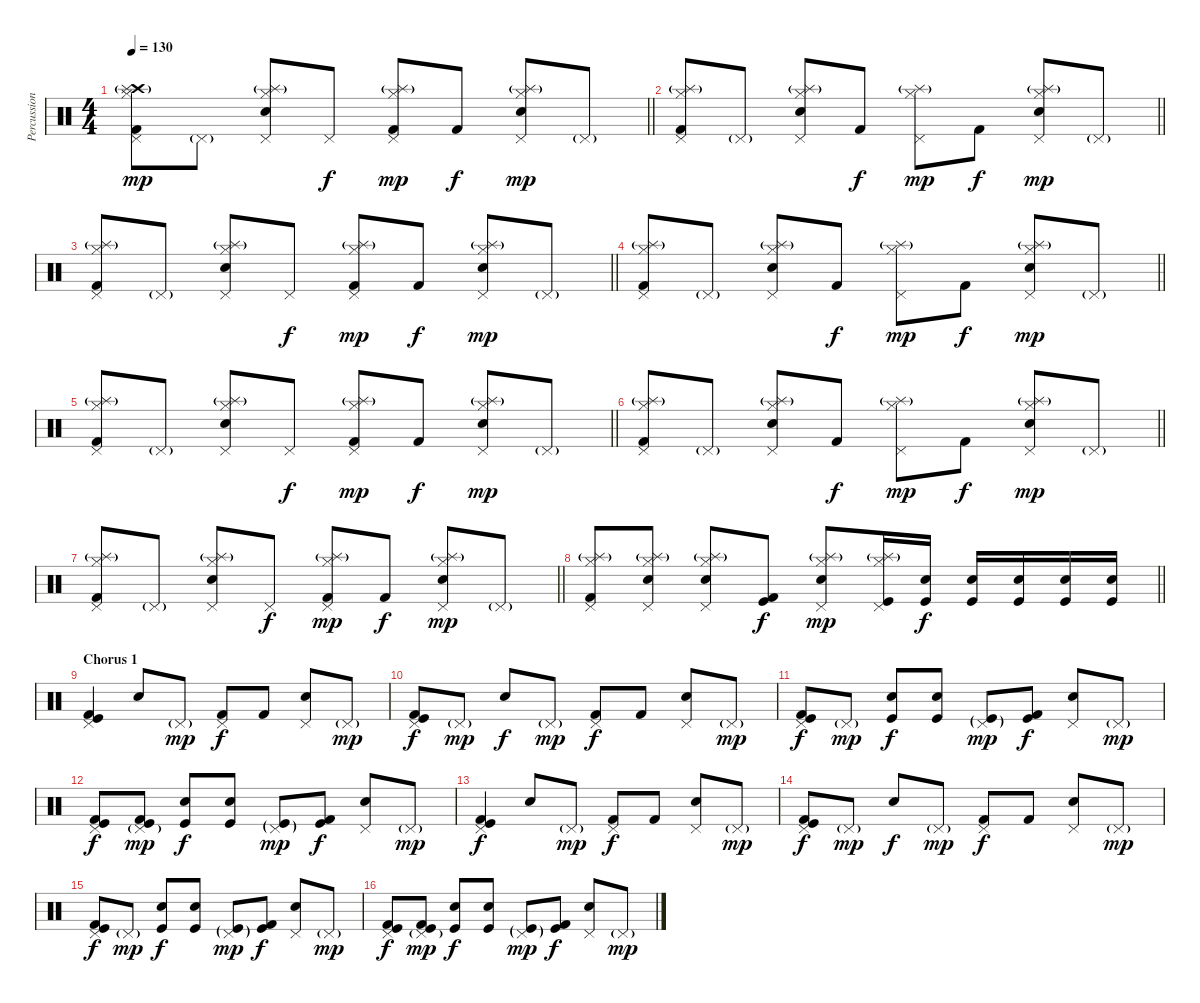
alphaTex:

\track ("Percussion(Wendell Garcia)" "Percussion") {instrument percussion}
\staff {score}
\articulation defaults
\ts (4 4)
\tempo 130
\clef neutral
\barLineRight lightlight
\ks c
("Crash high (hit)" "Pedal Hi-Hat (hit)" "Hi-Hat (closed)" "Splash (hit)"{g} "Kick (hit) 2").8{dy mp} "Pedal Hi-Hat (hit)"{g}.8 ("Electric Snare (hit)" "Pedal Hi-Hat (hit)" "Hi-Hat (closed)" "Splash (hit)"{g}).8 "Pedal Hi-Hat (hit)".8{dy f} ("Kick (hit) 2" "Pedal Hi-Hat (hit)" "Hi-Hat (closed)" "Splash (hit)"{g}).8{dy mp} "Kick (hit) 2".8{dy f} ("Electric Snare (hit)" "Pedal Hi-Hat (hit)" "Hi-Hat (closed)" "Splash (hit)"{g}).8{dy mp} "Pedal Hi-Hat (hit)"{g}.8 |
\barLineRight lightlight
("Kick (hit) 2" "Pedal Hi-Hat (hit)" "Hi-Hat (closed)" "Splash (hit)"{g}).8 "Pedal Hi-Hat (hit)"{g}.8 ("Electric Snare (hit)" "Pedal Hi-Hat (hit)" "Hi-Hat (closed)" "Splash (hit)"{g}).8 "Kick (hit) 2".8{dy f} ("Pedal Hi-Hat (hit)" "Hi-Hat (closed)" "Splash (hit)"{g}).8{dy mp} "Kick (hit) 2".8{dy f} ("Electric Snare (hit)" "Pedal Hi-Hat (hit)" "Hi-Hat (closed)" "Splash (hit)"{g}).8{dy mp} "Pedal Hi-Hat (hit)"{g}.8 |
\barLineRight lightlight
("Kick (hit) 2" "Pedal Hi-Hat (hit)" "Hi-Hat (closed)" "Splash (hit)"{g}).8 "Pedal Hi-Hat (hit)"{g}.8 ("Electric Snare (hit)" "Pedal Hi-Hat (hit)" "Hi-Hat (closed)" "Splash (hit)"{g}).8 "Pedal Hi-Hat (hit)".8{dy f} ("Kick (hit) 2" "Pedal Hi-Hat (hit)" "Hi-Hat (closed)" "Splash (hit)"{g}).8{dy mp} "Kick (hit) 2".8{dy f} ("Electric Snare (hit)" "Pedal Hi-Hat (hit)" "Hi-Hat (closed)" "Splash (hit)"{g}).8{dy mp} "Pedal Hi-Hat (hit)"{g}.8 |
\barLineRight lightlight
("Kick (hit) 2" "Pedal Hi-Hat (hit)" "Hi-Hat (closed)" "Splash (hit)"{g}).8 "Pedal Hi-Hat (hit)"{g}.8 ("Electric Snare (hit)" "Pedal Hi-Hat (hit)" "Hi-Hat (closed)" "Splash (hit)"{g}).8 "Kick (hit) 2".8{dy f} ("Pedal Hi-Hat (hit)" "Hi-Hat (closed)" "Splash (hit)"{g}).8{dy mp} "Kick (hit) 2".8{dy f} ("Electric Snare (hit)" "Pedal Hi-Hat (hit)" "Hi-Hat (closed)" "Splash (hit)"{g}).8{dy mp} "Pedal Hi-Hat (hit)"{g}.8 |
\barLineRight lightlight
("Kick (hit) 2" "Pedal Hi-Hat (hit)" "Hi-Hat (closed)" "Splash (hit)"{g}).8 "Pedal Hi-Hat (hit)"{g}.8 ("Electric Snare (hit)" "Pedal Hi-Hat (hit)" "Hi-Hat (closed)" "Splash (hit)"{g}).8 "Pedal Hi-Hat (hit)".8{dy f} ("Kick (hit) 2" "Pedal Hi-Hat (hit)" "Hi-Hat (closed)" "Splash (hit)"{g}).8{dy mp} "Kick (hit) 2".8{dy f} ("Electric Snare (hit)" "Pedal Hi-Hat (hit)" "Hi-Hat (closed)" "Splash (hit)"{g}).8{dy mp} "Pedal Hi-Hat (hit)"{g}.8 |
\barLineRight lightlight
("Kick (hit) 2" "Pedal Hi-Hat (hit)" "Hi-Hat (closed)" "Splash (hit)"{g}).8 "Pedal Hi-Hat (hit)"{g}.8 ("Electric Snare (hit)" "Pedal Hi-Hat (hit)" "Hi-Hat (closed)" "Splash (hit)"{g}).8 "Kick (hit) 2".8{dy f} ("Pedal Hi-Hat (hit)" "Hi-Hat (closed)" "Splash (hit)"{g}).8{dy mp} "Kick (hit) 2".8{dy f} ("Electric Snare (hit)" "Pedal Hi-Hat (hit)" "Hi-Hat (closed)" "Splash (hit)"{g}).8{dy mp} "Pedal Hi-Hat (hit)"{g}.8 |
\barLineRight lightlight
("Kick (hit) 2" "Pedal Hi-Hat (hit)" "Hi-Hat (closed)" "Splash (hit)"{g}).8 "Pedal Hi-Hat (hit)"{g}.8 ("Electric Snare (hit)" "Pedal Hi-Hat (hit)" "Hi-Hat (closed)" "Splash (hit)"{g}).8 "Pedal Hi-Hat (hit)".8{dy f} ("Kick (hit) 2" "Pedal Hi-Hat (hit)" "Hi-Hat (closed)" "Splash (hit)"{g}).8{dy mp} "Kick (hit) 2".8{dy f} ("Electric Snare (hit)" "Pedal Hi-Hat (hit)" "Hi-Hat (closed)" "Splash (hit)"{g}).8{dy mp} "Pedal Hi-Hat (hit)"{g}.8 |
\barLineRight lightlight
("Kick (hit) 2" "Pedal Hi-Hat (hit)" "Hi-Hat (closed)" "Splash (hit)"{g}).8 ("Electric Snare (hit)" "Pedal Hi-Hat (hit)" "Hi-Hat (closed)" "Splash (hit)"{g}).8 ("Electric Snare (hit)" "Pedal Hi-Hat (hit)" "Hi-Hat (closed)" "Splash (hit)"{g}).8 ("Kick (hit) 2" "Kick (hit)").8{dy f} ("Electric Snare (hit)" "Pedal Hi-Hat (hit)" "Hi-Hat (closed)" "Splash (hit)"{g}).8{dy mp} ("Kick (hit)" "Pedal Hi-Hat (hit)" "Hi-Hat (closed)" "Splash (hit)"{g}).16 ("Electric Snare (hit)" "Kick (hit)").16{dy f} ("Electric Snare (hit)" "Kick (hit)").16 ("Electric Snare (hit)" "Kick (hit)").16 ("Electric Snare (hit)" "Kick (hit)").16 ("Electric Snare (hit)" "Kick (hit)").16 |
\section ("" "Chorus 1")
("Pedal Hi-Hat (hit)" "Kick (hit) 2" "Kick (hit)").4 "Electric Snare (hit)".8 "Pedal Hi-Hat (hit)"{g}.8{dy mp} ("Kick (hit) 2" "Pedal Hi-Hat (hit)").8{dy f} "Kick (hit) 2".8 ("Electric Snare (hit)" "Pedal Hi-Hat (hit)").8 "Pedal Hi-Hat (hit)"{g}.8{dy mp} |
("Pedal Hi-Hat (hit)" "Kick (hit) 2" "Kick (hit)").8{dy f} "Pedal Hi-Hat (hit)"{g}.8{dy mp} "Electric Snare (hit)".8{dy f} "Pedal Hi-Hat (hit)"{g}.8{dy mp} ("Kick (hit) 2" "Pedal Hi-Hat (hit)").8{dy f} "Kick (hit) 2".8 ("Electric Snare (hit)" "Pedal Hi-Hat (hit)").8 "Pedal Hi-Hat (hit)"{g}.8{dy mp} |
("Pedal Hi-Hat (hit)" "Kick (hit) 2" "Kick (hit)").8{dy f} "Pedal Hi-Hat (hit)"{g}.8{dy mp} ("Electric Snare (hit)" "Kick (hit)").8{dy f} ("Electric Snare (hit)" "Kick (hit)").8 ("Kick (hit)"{g} "Pedal Hi-Hat (hit)"{g}).8{dy mp} ("Kick (hit) 2" "Kick (hit)").8{dy f} ("Electric Snare (hit)" "Pedal Hi-Hat (hit)").8 "Pedal Hi-Hat (hit)"{g}.8{dy mp} |
("Pedal Hi-Hat (hit)" "Kick (hit) 2" "Kick (hit)").8{dy f} ("Pedal Hi-Hat (hit)"{g} "Kick (hit) 2" "Kick (hit)").8{dy mp} ("Electric Snare (hit)" "Kick (hit)").8{dy f} ("Electric Snare (hit)" "Kick (hit)").8 ("Kick (hit)"{g} "Pedal Hi-Hat (hit)"{g}).8{dy mp} ("Kick (hit) 2" "Kick (hit)").8{dy f} ("Electric Snare (hit)" "Pedal Hi-Hat (hit)").8 "Pedal Hi-Hat (hit)"{g}.8{dy mp} |
("Pedal Hi-Hat (hit)" "Kick (hit) 2" "Kick (hit)").4{dy f} "Electric Snare (hit)".8 "Pedal Hi-Hat (hit)"{g}.8{dy mp} ("Kick (hit) 2" "Pedal Hi-Hat (hit)").8{dy f} "Kick (hit) 2".8 ("Electric Snare (hit)" "Pedal Hi-Hat (hit)").8 "Pedal Hi-Hat (hit)"{g}.8{dy mp} |
("Pedal Hi-Hat (hit)" "Kick (hit) 2" "Kick (hit)").8{dy f} "Pedal Hi-Hat (hit)"{g}.8{dy mp} "Electric Snare (hit)".8{dy f} "Pedal Hi-Hat (hit)"{g}.8{dy mp} ("Kick (hit) 2" "Pedal Hi-Hat (hit)").8{dy f} "Kick (hit) 2".8 ("Electric Snare (hit)" "Pedal Hi-Hat (hit)").8 "Pedal Hi-Hat (hit)"{g}.8{dy mp} |
("Pedal Hi-Hat (hit)" "Kick (hit) 2" "Kick (hit)").8{dy f} "Pedal Hi-Hat (hit)"{g}.8{dy mp} ("Electric Snare (hit)" "Kick (hit)").8{dy f} ("Electric Snare (hit)" "Kick (hit)").8 ("Kick (hit)"{g} "Pedal Hi-Hat (hit)"{g}).8{dy mp} ("Kick (hit) 2" "Kick (hit)").8{dy f} ("Electric Snare (hit)" "Pedal Hi-Hat (hit)").8 "Pedal Hi-Hat (hit)"{g}.8{dy mp} |
("Pedal Hi-Hat (hit)" "Kick (hit) 2" "Kick (hit)").8{dy f} ("Pedal Hi-Hat (hit)"{g} "Kick (hit) 2" "Kick (hit)").8{dy mp} ("Electric Snare (hit)" "Kick (hit)").8{dy f} ("Electric Snare (hit)" "Kick (hit)").8 ("Kick (hit)"{g} "Pedal Hi-Hat (hit)"{g}).8{dy mp} ("Kick (hit) 2" "Kick (hit)").8{dy f} ("Electric Snare (hit)" "Pedal Hi-Hat (hit)").8 "Pedal Hi-Hat (hit)"{g}.8{dy mp}
